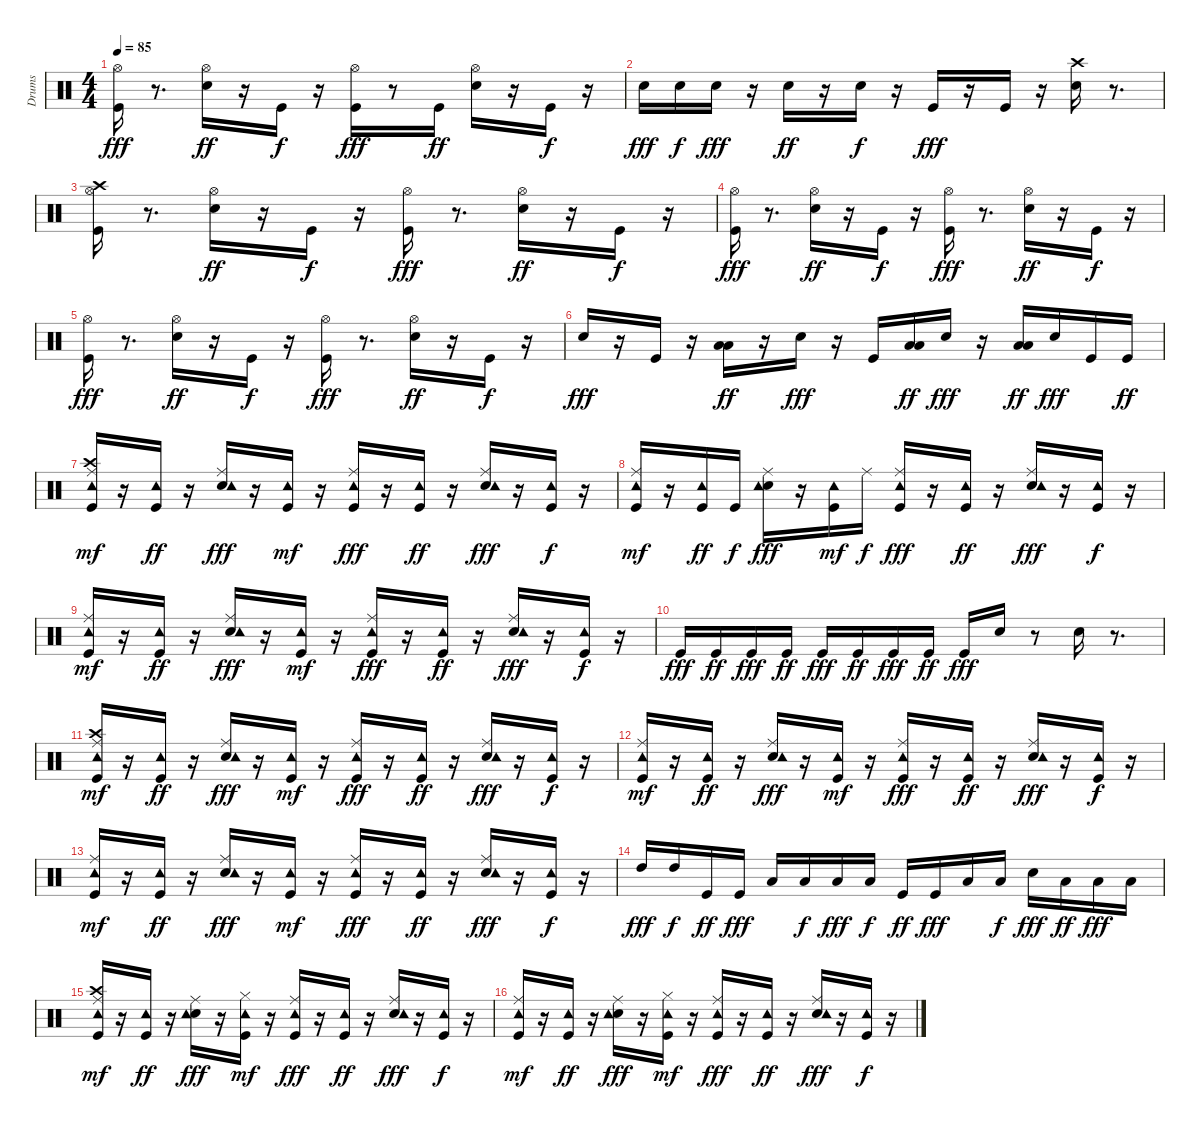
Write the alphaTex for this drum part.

\track ("Drums    " "Drums    ") {instrument percussion}
\staff {score}
\articulation defaults
\ts (4 4)
\tempo 85
\clef neutral
\ks c
("Kick (hit)" "Hi-Hat (open)").16{dy fff} r.8{d} ("Snare (hit) 2" "Hi-Hat (open)").16{dy ff} r.16 "Kick (hit)".16{dy f} r.16 ("Kick (hit)" "Hi-Hat (open)").16{dy fff} r.8 "Kick (hit)".16{dy ff} ("Snare (hit) 2" "Hi-Hat (open)").16 r.16 "Kick (hit)".16{dy f} r.16 |
"Snare (hit) 2".16{dy fff} "Snare (hit) 2".16{dy f} "Snare (hit) 2".16{dy fff} r.16 "Snare (hit) 2".16{dy ff} r.16 "Snare (hit) 2".16{dy f} r.16 "Kick (hit)".16{dy fff} r.16 "Kick (hit)".16 r.16 ("Snare (hit) 2" "Crash high (hit)").16 r.8{d} |
("Kick (hit)" "Hi-Hat (open)" "Crash high (hit)").16 r.8{d} ("Snare (hit) 2" "Hi-Hat (open)").16{dy ff} r.16 "Kick (hit)".16{dy f} r.16 ("Kick (hit)" "Hi-Hat (open)").16{dy fff} r.8{d} ("Snare (hit) 2" "Hi-Hat (open)").16{dy ff} r.16 "Kick (hit)".16{dy f} r.16 |
("Kick (hit)" "Hi-Hat (open)").16{dy fff} r.8{d} ("Snare (hit) 2" "Hi-Hat (open)").16{dy ff} r.16 "Kick (hit)".16{dy f} r.16 ("Kick (hit)" "Hi-Hat (open)").16{dy fff} r.8{d} ("Snare (hit) 2" "Hi-Hat (open)").16{dy ff} r.16 "Kick (hit)".16{dy f} r.16 |
("Kick (hit)" "Hi-Hat (open)").16{dy fff} r.8{d} ("Snare (hit) 2" "Hi-Hat (open)").16{dy ff} r.16 "Kick (hit)".16{dy f} r.16 ("Kick (hit)" "Hi-Hat (open)").16{dy fff} r.8{d} ("Snare (hit) 2" "Hi-Hat (open)").16{dy ff} r.16 "Kick (hit)".16{dy f} r.16 |
"Snare (hit) 2".16{dy fff} r.16 "Kick (hit)".16 r.16 ("Low Floor Tom (hit)" "Low Tom (hit)").16{dy ff} r.16 "Snare (hit) 2".16{dy fff} r.16 "Kick (hit)".16 ("Low Floor Tom (hit)" "Low Tom (hit)").16{dy ff} "Snare (hit) 2".16{dy fff} r.16 ("Low Floor Tom (hit)" "Low Tom (hit)").16{dy ff} "Snare (hit) 2".16{dy fff} "Kick (hit)".16 "Kick (hit)".16{dy ff} |
("Kick (hit)" "Ride (middle)" "Crash high (hit)" "Tambourine (hit)").16{dy mf} r.16 ("Kick (hit)" "Tambourine (hit)").16{dy ff} r.16 ("Snare (hit) 2" "Ride (middle)" "Tambourine (hit)").16{dy fff} r.16 ("Kick (hit)" "Tambourine (hit)").16{dy mf} r.16 ("Kick (hit)" "Ride (middle)" "Tambourine (hit)").16{dy fff} r.16 ("Kick (hit)" "Tambourine (hit)").16{dy ff} r.16 ("Snare (hit) 2" "Ride (middle)" "Tambourine (hit)").16{dy fff} r.16 ("Kick (hit)" "Tambourine (hit)").16{dy f} r.16 |
("Kick (hit)" "Ride (middle)" "Tambourine (hit)").16{dy mf} r.16 ("Kick (hit)" "Tambourine (hit)").16{dy ff} "Kick (hit)".16{dy f} ("Snare (hit) 2" "Ride (middle)" "Tambourine (hit)").16{dy fff} r.16 ("Kick (hit)" "Tambourine (hit)").16{dy mf} "Ride (middle)".16{dy f} ("Kick (hit)" "Ride (middle)" "Tambourine (hit)").16{dy fff} r.16 ("Kick (hit)" "Tambourine (hit)").16{dy ff} r.16 ("Snare (hit) 2" "Ride (middle)" "Tambourine (hit)").16{dy fff} r.16 ("Kick (hit)" "Tambourine (hit)").16{dy f} r.16 |
("Kick (hit)" "Ride (middle)" "Tambourine (hit)").16{dy mf} r.16 ("Kick (hit)" "Tambourine (hit)").16{dy ff} r.16 ("Snare (hit) 2" "Ride (middle)" "Tambourine (hit)").16{dy fff} r.16 ("Kick (hit)" "Tambourine (hit)").16{dy mf} r.16 ("Kick (hit)" "Ride (middle)" "Tambourine (hit)").16{dy fff} r.16 ("Kick (hit)" "Tambourine (hit)").16{dy ff} r.16 ("Snare (hit) 2" "Ride (middle)" "Tambourine (hit)").16{dy fff} r.16 ("Kick (hit)" "Tambourine (hit)").16{dy f} r.16 |
"Kick (hit)".16{dy fff} "Kick (hit)".16{dy ff} "Kick (hit)".16{dy fff} "Kick (hit)".16{dy ff} "Kick (hit)".16{dy fff} "Kick (hit)".16{dy ff} "Kick (hit)".16{dy fff} "Kick (hit)".16{dy ff} "Kick (hit)".16{dy fff} "Snare (hit) 2".16 r.8 "Snare (hit) 2".16 r.8{d} |
("Kick (hit)" "Ride (middle)" "Crash high (hit)" "Tambourine (hit)").16{dy mf} r.16 ("Kick (hit)" "Tambourine (hit)").16{dy ff} r.16 ("Snare (hit) 2" "Ride (middle)" "Tambourine (hit)").16{dy fff} r.16 ("Kick (hit)" "Tambourine (hit)").16{dy mf} r.16 ("Kick (hit)" "Ride (middle)" "Tambourine (hit)").16{dy fff} r.16 ("Kick (hit)" "Tambourine (hit)").16{dy ff} r.16 ("Snare (hit) 2" "Ride (middle)" "Tambourine (hit)").16{dy fff} r.16 ("Kick (hit)" "Tambourine (hit)").16{dy f} r.16 |
("Kick (hit)" "Ride (middle)" "Tambourine (hit)").16{dy mf} r.16 ("Kick (hit)" "Tambourine (hit)").16{dy ff} r.16 ("Snare (hit) 2" "Ride (middle)" "Tambourine (hit)").16{dy fff} r.16 ("Kick (hit)" "Tambourine (hit)").16{dy mf} r.16 ("Kick (hit)" "Ride (middle)" "Tambourine (hit)").16{dy fff} r.16 ("Kick (hit)" "Tambourine (hit)").16{dy ff} r.16 ("Snare (hit) 2" "Ride (middle)" "Tambourine (hit)").16{dy fff} r.16 ("Kick (hit)" "Tambourine (hit)").16{dy f} r.16 |
("Kick (hit)" "Ride (middle)" "Tambourine (hit)").16{dy mf} r.16 ("Kick (hit)" "Tambourine (hit)").16{dy ff} r.16 ("Snare (hit) 2" "Ride (middle)" "Tambourine (hit)").16{dy fff} r.16 ("Kick (hit)" "Tambourine (hit)").16{dy mf} r.16 ("Kick (hit)" "Ride (middle)" "Tambourine (hit)").16{dy fff} r.16 ("Kick (hit)" "Tambourine (hit)").16{dy ff} r.16 ("Snare (hit) 2" "Ride (middle)" "Tambourine (hit)").16{dy fff} r.16 ("Kick (hit)" "Tambourine (hit)").16{dy f} r.16 |
"High Tom (hit)".16{dy fff} "High Tom (hit)".16{dy f} "Kick (hit)".16{dy ff} "Kick (hit)".16{dy fff} "Low Tom (hit)".16 "Low Tom (hit)".16{dy f} "Low Tom (hit)".16{dy fff} "Low Tom (hit)".16{dy f} "Kick (hit)".16{dy ff} "Kick (hit)".16{dy fff} "Low Floor Tom (hit)".16 "Low Floor Tom (hit)".16{dy f} "Snare (hit) 2".16{dy fff} "Low Floor Tom (hit)".16{dy ff} "Low Floor Tom (hit)".16{dy fff} "Low Floor Tom (hit)".16 |
("Kick (hit)" "Ride (middle)" "Crash high (hit)" "Tambourine (hit)").16{dy mf} r.16 ("Kick (hit)" "Tambourine (hit)").16{dy ff} r.16 ("Snare (hit) 2" "Ride (middle)" "Tambourine (hit)").16{dy fff} r.16 ("Kick (hit)" "Hi-Hat (closed)" "Tambourine (hit)").16{dy mf} r.16 ("Kick (hit)" "Ride (middle)" "Tambourine (hit)").16{dy fff} r.16 ("Kick (hit)" "Tambourine (hit)").16{dy ff} r.16 ("Snare (hit) 2" "Ride (middle)" "Tambourine (hit)").16{dy fff} r.16 ("Kick (hit)" "Tambourine (hit)").16{dy f} r.16 |
("Kick (hit)" "Ride (middle)" "Tambourine (hit)").16{dy mf} r.16 ("Kick (hit)" "Tambourine (hit)").16{dy ff} r.16 ("Snare (hit) 2" "Ride (middle)" "Tambourine (hit)").16{dy fff} r.16 ("Kick (hit)" "Hi-Hat (closed)" "Tambourine (hit)").16{dy mf} r.16 ("Kick (hit)" "Ride (middle)" "Tambourine (hit)").16{dy fff} r.16 ("Kick (hit)" "Tambourine (hit)").16{dy ff} r.16 ("Snare (hit) 2" "Ride (middle)" "Tambourine (hit)").16{dy fff} r.16 ("Kick (hit)" "Tambourine (hit)").16{dy f} r.16
